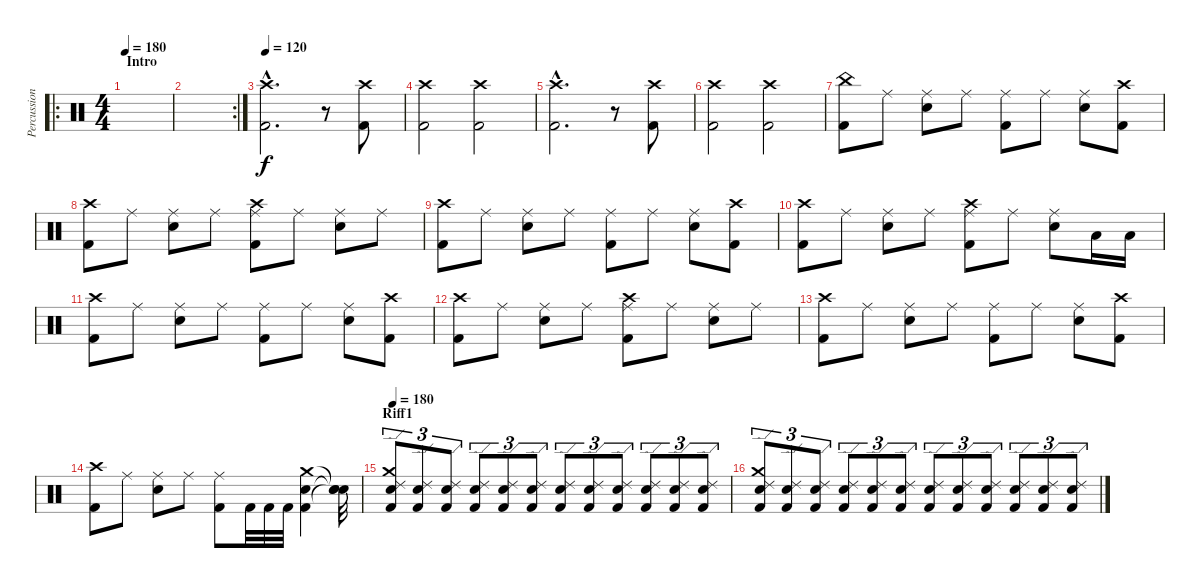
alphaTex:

\track ("Percussioni" "Percussion") {instrument percussion}
\staff {score}
\articulation defaults
\ro
\ts (4 4)
\section ("" "Intro")
\tempo 180
\tempo 120
\tempo 180
\clef neutral
\ks c
|
\rc 2
|
\tempo 120
("Crash high (hit)"{hac} "Kick (hit) 2"{hac}).2{d} r.8 ("Crash high (hit)" "Kick (hit) 2").8 |
("Crash high (hit)" "Kick (hit) 2").2 ("Crash high (hit)" "Kick (hit) 2").2 |
("Crash high (hit)"{hac} "Kick (hit) 2"{hac}).2{d} r.8 ("Crash high (hit)" "Kick (hit) 2").8 |
("Crash high (hit)" "Kick (hit) 2").2 ("Crash high (hit)" "Kick (hit) 2").2 |
("China (hit)" "Kick (hit) 2").8 "Ride (middle)".8 ("Ride (middle)" "Electric Snare (hit)").8 "Ride (middle)".8 ("Ride (middle)" "Kick (hit) 2").8 "Ride (middle)".8 ("Ride (middle)" "Electric Snare (hit)").8 ("Crash high (hit)" "Kick (hit) 2").8 |
("Crash high (hit)" "Kick (hit) 2").8 "Ride (middle)".8 ("Ride (middle)" "Electric Snare (hit)").8 "Ride (middle)".8 ("Crash high (hit)" "Ride (middle)" "Kick (hit) 2").8 "Ride (middle)".8 ("Ride (middle)" "Electric Snare (hit)").8 "Ride (middle)".8 |
("Crash high (hit)" "Kick (hit) 2").8 "Ride (middle)".8 ("Ride (middle)" "Electric Snare (hit)").8 "Ride (middle)".8 ("Ride (middle)" "Kick (hit) 2").8 "Ride (middle)".8 ("Ride (middle)" "Electric Snare (hit)").8 ("Crash high (hit)" "Kick (hit) 2").8 |
("Crash high (hit)" "Kick (hit) 2").8 "Ride (middle)".8 ("Ride (middle)" "Electric Snare (hit)").8 "Ride (middle)".8 ("Crash high (hit)" "Ride (middle)" "Kick (hit) 2").8 "Ride (middle)".8 ("Ride (middle)" "Electric Snare (hit)").8 "Low Tom (hit)".16 "Low Tom (hit)".16 |
("Crash high (hit)" "Kick (hit) 2").8 "Ride (middle)".8 ("Ride (middle)" "Electric Snare (hit)").8 "Ride (middle)".8 ("Ride (middle)" "Kick (hit) 2").8 "Ride (middle)".8 ("Ride (middle)" "Electric Snare (hit)").8 ("Crash high (hit)" "Kick (hit) 2").8 |
("Crash high (hit)" "Kick (hit) 2").8 "Ride (middle)".8 ("Ride (middle)" "Electric Snare (hit)").8 "Ride (middle)".8 ("Crash high (hit)" "Ride (middle)" "Kick (hit) 2").8 "Ride (middle)".8 ("Ride (middle)" "Electric Snare (hit)").8 "Ride (middle)".8 |
("Crash high (hit)" "Kick (hit) 2").8 "Ride (middle)".8 ("Ride (middle)" "Electric Snare (hit)").8 "Ride (middle)".8 ("Ride (middle)" "Kick (hit) 2").8 "Ride (middle)".8 ("Ride (middle)" "Electric Snare (hit)").8 ("Crash high (hit)" "Kick (hit) 2").8 |
("Crash high (hit)" "Kick (hit) 2").8 "Ride (middle)".8 ("Ride (middle)" "Electric Snare (hit)").8 "Ride (middle)".8 ("Ride (middle)" "Kick (hit) 2").8 "Kick (hit) 2".32 "Kick (hit) 2".32 "Kick (hit) 2".32 ("Crash medium (hit)" "Electric Snare (hit)" "Kick (hit) 2").4 ("Snare (hit)"{t} "Snare (hit)"{t} "Snare (hit)"{t}).32 |
\section ("" "Riff1")
\tempo 180
("Crash medium (hit)" "Ride (edge) 2" "Snare (hit) 2" "Kick (hit) 2").8{tu (3 2)} ("Ride (edge) 2" "Snare (hit) 2" "Kick (hit) 2").8{tu (3 2)} ("Ride (edge) 2" "Snare (hit) 2" "Kick (hit) 2").8{tu (3 2)} ("Ride (edge) 2" "Snare (hit) 2" "Kick (hit) 2").8{tu (3 2)} ("Ride (edge) 2" "Snare (hit) 2" "Kick (hit) 2").8{tu (3 2)} ("Ride (edge) 2" "Snare (hit) 2" "Kick (hit) 2").8{tu (3 2)} ("Ride (edge) 2" "Snare (hit) 2" "Kick (hit) 2").8{tu (3 2)} ("Ride (edge) 2" "Snare (hit) 2" "Kick (hit) 2").8{tu (3 2)} ("Ride (edge) 2" "Snare (hit) 2" "Kick (hit) 2").8{tu (3 2)} ("Ride (edge) 2" "Snare (hit) 2" "Kick (hit) 2").8{tu (3 2)} ("Ride (edge) 2" "Snare (hit) 2" "Kick (hit) 2").8{tu (3 2)} ("Ride (edge) 2" "Snare (hit) 2" "Kick (hit) 2").8{tu (3 2)} |
("Crash medium (hit)" "Ride (edge) 2" "Snare (hit) 2" "Kick (hit) 2").8{tu (3 2)} ("Ride (edge) 2" "Snare (hit) 2" "Kick (hit) 2").8{tu (3 2)} ("Ride (edge) 2" "Snare (hit) 2" "Kick (hit) 2").8{tu (3 2)} ("Ride (edge) 2" "Snare (hit) 2" "Kick (hit) 2").8{tu (3 2)} ("Ride (edge) 2" "Snare (hit) 2" "Kick (hit) 2").8{tu (3 2)} ("Ride (edge) 2" "Snare (hit) 2" "Kick (hit) 2").8{tu (3 2)} ("Ride (edge) 2" "Snare (hit) 2" "Kick (hit) 2").8{tu (3 2)} ("Ride (edge) 2" "Snare (hit) 2" "Kick (hit) 2").8{tu (3 2)} ("Ride (edge) 2" "Snare (hit) 2" "Kick (hit) 2").8{tu (3 2)} ("Ride (edge) 2" "Snare (hit) 2" "Kick (hit) 2").8{tu (3 2)} ("Ride (edge) 2" "Snare (hit) 2" "Kick (hit) 2").8{tu (3 2)} ("Ride (edge) 2" "Snare (hit) 2" "Kick (hit) 2").8{tu (3 2)}
